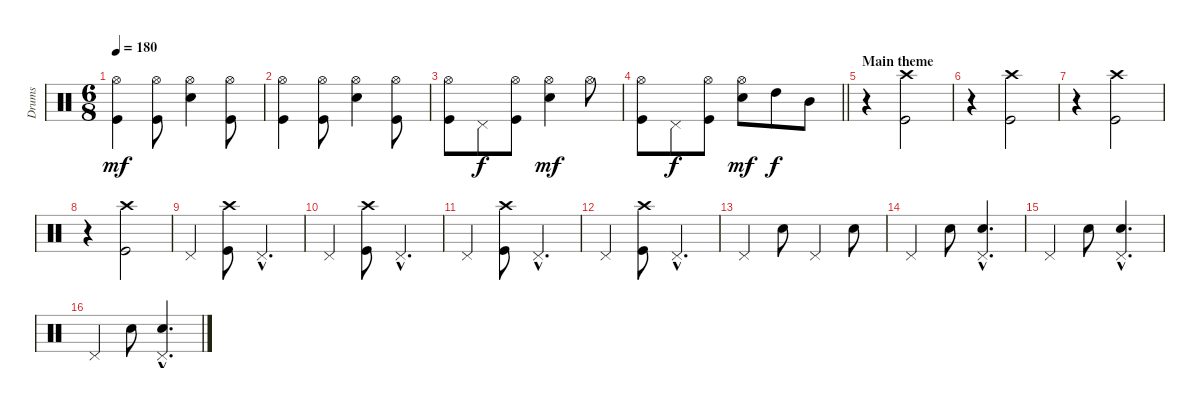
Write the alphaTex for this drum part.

\track ("Drums" "Drums") {instrument percussion}
\staff {score}
\articulation defaults
\ts (6 8)
\tempo 180
\clef neutral
\ks c
("Hi-Hat (open)" "Kick (hit)").4{dy mf} ("Hi-Hat (open)" "Kick (hit)").8 ("Hi-Hat (open)" "Electric Snare (hit)").4 ("Hi-Hat (open)" "Kick (hit)").8 |
("Hi-Hat (open)" "Kick (hit)").4 ("Hi-Hat (open)" "Kick (hit)").8 ("Hi-Hat (open)" "Electric Snare (hit)").4 ("Hi-Hat (open)" "Kick (hit)").8 |
("Hi-Hat (open)" "Kick (hit)").8 "Pedal Hi-Hat (hit)".8{dy f} ("Hi-Hat (open)" "Kick (hit)").8 ("Hi-Hat (open)" "Electric Snare (hit)").4{dy mf} "Hi-Hat (open)".8 |
\barLineRight lightlight
("Hi-Hat (open)" "Kick (hit)").8 "Pedal Hi-Hat (hit)".8{dy f} ("Hi-Hat (open)" "Kick (hit)").8 ("Hi-Hat (open)" "Electric Snare (hit)").8{dy mf} "High Tom (hit)".8{dy f} "Mid Tom (hit)".8 |
\section ("" "Main theme")
r.4 ("Crash high (hit)" "Kick (hit)").2 |
r.4 ("Crash high (hit)" "Kick (hit)").2 |
r.4 ("Crash high (hit)" "Kick (hit)").2 |
r.4 ("Crash high (hit)" "Kick (hit)").2 |
"Pedal Hi-Hat (hit)".4 ("Crash high (hit)" "Kick (hit)").8 "Pedal Hi-Hat (hit)"{hac}.4{d} |
"Pedal Hi-Hat (hit)".4 ("Crash high (hit)" "Kick (hit)").8 "Pedal Hi-Hat (hit)"{hac}.4{d} |
"Pedal Hi-Hat (hit)".4 ("Crash high (hit)" "Kick (hit)").8 "Pedal Hi-Hat (hit)"{hac}.4{d} |
"Pedal Hi-Hat (hit)".4 ("Crash high (hit)" "Kick (hit)").8 "Pedal Hi-Hat (hit)"{hac}.4{d} |
"Pedal Hi-Hat (hit)".4 "Electric Snare (hit)".8 "Pedal Hi-Hat (hit)".4 "Electric Snare (hit)".8 |
"Pedal Hi-Hat (hit)".4 "Electric Snare (hit)".8 ("Pedal Hi-Hat (hit)"{hac} "Electric Snare (hit)"{hac}).4{d} |
"Pedal Hi-Hat (hit)".4 "Electric Snare (hit)".8 ("Pedal Hi-Hat (hit)"{hac} "Electric Snare (hit)"{hac}).4{d} |
"Pedal Hi-Hat (hit)".4 "Electric Snare (hit)".8 ("Pedal Hi-Hat (hit)"{hac} "Electric Snare (hit)"{hac}).4{d}
